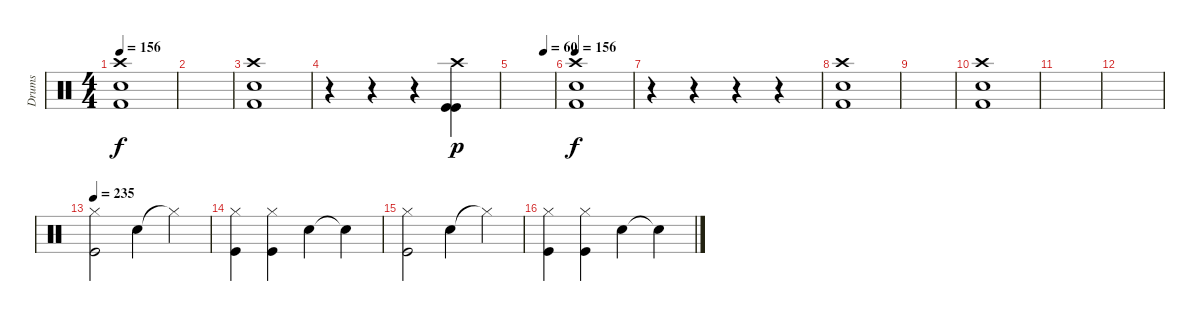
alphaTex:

\track ("Drums" "Drums") {instrument percussion}
\staff {score}
\articulation defaults
\ts (4 4)
\tempo 156
\clef neutral
\ks c
("Kick (hit) 2" "Snare (hit) 2" "Crash high (hit)").1{dy f} |
|
("Kick (hit) 2" "Snare (hit) 2" "Crash high (hit)").1 |
r.4 r.4 r.4 ("Kick (hit)" "Kick (hit)" "Crash high (hit)").4{dy p} |
\tempo (60 0.75)
|
\tempo 156
("Kick (hit) 2" "Snare (hit) 2" "Crash high (hit)").1{dy f} |
r.4 r.4 r.4 r.4 |
("Kick (hit) 2" "Snare (hit) 2" "Crash high (hit)").1 |
|
("Kick (hit) 2" "Snare (hit) 2" "Crash high (hit)").1 |
|
|
\tempo 235
("Hi-Hat (closed)" "Kick (hit)").2 "Snare (hit) 2".4 "Hi-Hat (closed)"{t}.4 |
("Hi-Hat (closed)" "Kick (hit)").4 ("Hi-Hat (closed)" "Kick (hit)").4 "Snare (hit) 2".4 "Snare (hit)"{t}.4 |
("Hi-Hat (closed)" "Kick (hit)").2 "Snare (hit) 2".4 "Hi-Hat (closed)"{t}.4 |
("Hi-Hat (closed)" "Kick (hit)").4 ("Hi-Hat (closed)" "Kick (hit)").4 "Snare (hit) 2".4 "Snare (hit)"{t}.4
